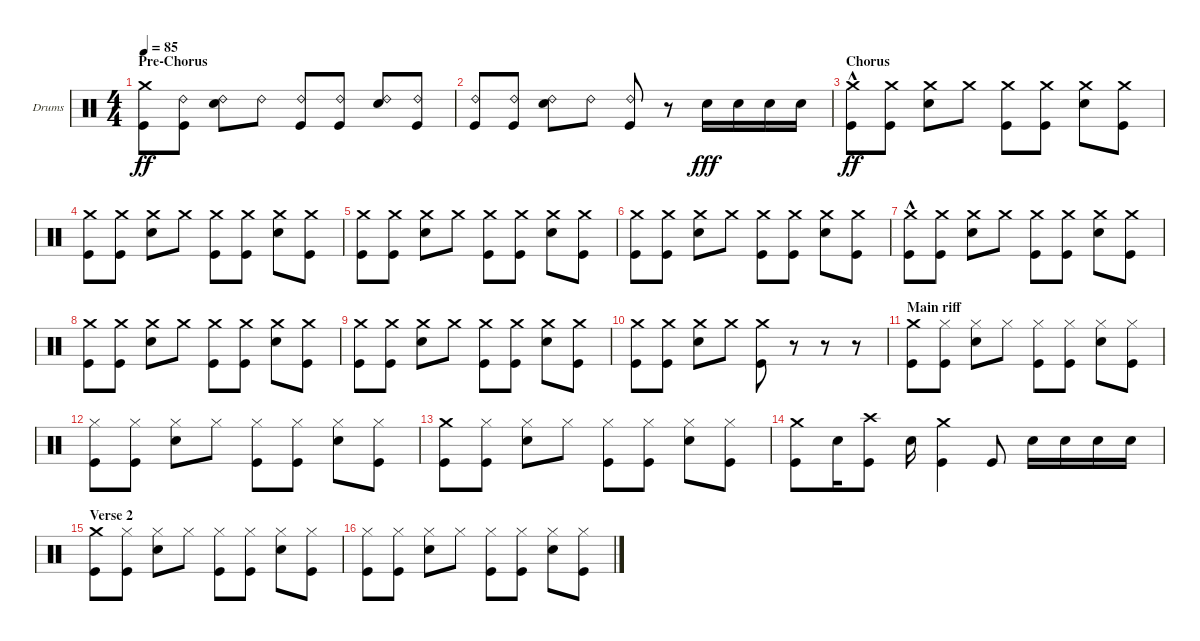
\bracketExtendMode groupsimilarinstruments
\firstSystemTrackNameOrientation horizontal
\otherSystemsTrackNameOrientation horizontal
\track ("Drumkit" "Drums") {instrument percussion}
\staff {score}
\articulation defaults
\ts (4 4)
\section ("" "Pre-Chorus")
\tempo 85
\clef neutral
\ks c
("Kick (hit)" "Crash medium (hit)").8{dy ff} ("Kick (hit)" "Ride (bell) 2").8 ("Snare (hit) 2" "Ride (bell) 2").8 "Ride (bell) 2".8 ("Kick (hit)" "Ride (bell) 2").8 ("Kick (hit)" "Ride (bell) 2").8 ("Snare (hit) 2" "Ride (bell) 2").8 ("Kick (hit)" "Ride (bell) 2").8 |
("Kick (hit)" "Ride (bell) 2").8 ("Kick (hit)" "Ride (bell) 2").8 ("Snare (hit) 2" "Ride (bell) 2").8 "Ride (bell) 2".8 ("Kick (hit)" "Ride (bell) 2").8 r.8 "Snare (hit) 2".16{dy fff} "Snare (hit) 2".16 "Snare (hit) 2".16 "Snare (hit) 2".16 |
\section ("" "Chorus")
("Kick (hit)"{hac} "Crash medium (hit)"{hac}).8{dy ff} ("Kick (hit)" "Crash medium (hit)").8 ("Snare (hit) 2" "Crash medium (hit)").8 "Crash medium (hit)".8 ("Kick (hit)" "Crash medium (hit)").8 ("Kick (hit)" "Crash medium (hit)").8 ("Snare (hit) 2" "Crash medium (hit)").8 ("Kick (hit)" "Crash medium (hit)").8 |
("Kick (hit)" "Crash medium (hit)").8 ("Kick (hit)" "Crash medium (hit)").8 ("Snare (hit) 2" "Crash medium (hit)").8 "Crash medium (hit)".8 ("Kick (hit)" "Crash medium (hit)").8 ("Kick (hit)" "Crash medium (hit)").8 ("Snare (hit) 2" "Crash medium (hit)").8 ("Kick (hit)" "Crash medium (hit)").8 |
("Kick (hit)" "Crash medium (hit)").8 ("Kick (hit)" "Crash medium (hit)").8 ("Snare (hit) 2" "Crash medium (hit)").8 "Crash medium (hit)".8 ("Kick (hit)" "Crash medium (hit)").8 ("Kick (hit)" "Crash medium (hit)").8 ("Snare (hit) 2" "Crash medium (hit)").8 ("Kick (hit)" "Crash medium (hit)").8 |
("Kick (hit)" "Crash medium (hit)").8 ("Kick (hit)" "Crash medium (hit)").8 ("Snare (hit) 2" "Crash medium (hit)").8 "Crash medium (hit)".8 ("Kick (hit)" "Crash medium (hit)").8 ("Kick (hit)" "Crash medium (hit)").8 ("Snare (hit) 2" "Crash medium (hit)").8 ("Kick (hit)" "Crash medium (hit)").8 |
("Kick (hit)"{hac} "Crash medium (hit)"{hac}).8 ("Kick (hit)" "Crash medium (hit)").8 ("Snare (hit) 2" "Crash medium (hit)").8 "Crash medium (hit)".8 ("Kick (hit)" "Crash medium (hit)").8 ("Kick (hit)" "Crash medium (hit)").8 ("Snare (hit) 2" "Crash medium (hit)").8 ("Kick (hit)" "Crash medium (hit)").8 |
("Kick (hit)" "Crash medium (hit)").8 ("Kick (hit)" "Crash medium (hit)").8 ("Snare (hit) 2" "Crash medium (hit)").8 "Crash medium (hit)".8 ("Kick (hit)" "Crash medium (hit)").8 ("Kick (hit)" "Crash medium (hit)").8 ("Snare (hit) 2" "Crash medium (hit)").8 ("Kick (hit)" "Crash medium (hit)").8 |
("Kick (hit)" "Crash medium (hit)").8 ("Kick (hit)" "Crash medium (hit)").8 ("Snare (hit) 2" "Crash medium (hit)").8 "Crash medium (hit)".8 ("Kick (hit)" "Crash medium (hit)").8 ("Kick (hit)" "Crash medium (hit)").8 ("Snare (hit) 2" "Crash medium (hit)").8 ("Kick (hit)" "Crash medium (hit)").8 |
("Kick (hit)" "Crash medium (hit)").8 ("Kick (hit)" "Crash medium (hit)").8 ("Snare (hit) 2" "Crash medium (hit)").8 "Crash medium (hit)".8 ("Kick (hit)" "Crash medium (hit)").8 r.8 r.8 r.8 |
\section ("" "Main riff")
("Kick (hit)" "Crash medium (hit)").8 ("Kick (hit)" "Hi-Hat (closed)").8 ("Snare (hit) 2" "Hi-Hat (closed)").8 "Hi-Hat (closed)".8 ("Kick (hit)" "Hi-Hat (closed)").8 ("Kick (hit)" "Hi-Hat (closed)").8 ("Snare (hit) 2" "Hi-Hat (closed)").8 ("Kick (hit)" "Hi-Hat (closed)").8 |
("Kick (hit)" "Hi-Hat (closed)").8 ("Kick (hit)" "Hi-Hat (closed)").8 ("Snare (hit) 2" "Hi-Hat (closed)").8 "Hi-Hat (closed)".8 ("Kick (hit)" "Hi-Hat (closed)").8 ("Kick (hit)" "Hi-Hat (closed)").8 ("Snare (hit) 2" "Hi-Hat (closed)").8 ("Kick (hit)" "Hi-Hat (closed)").8 |
("Kick (hit)" "Crash medium (hit)").8 ("Kick (hit)" "Hi-Hat (closed)").8 ("Snare (hit) 2" "Hi-Hat (closed)").8 "Hi-Hat (closed)".8 ("Kick (hit)" "Hi-Hat (closed)").8 ("Kick (hit)" "Hi-Hat (closed)").8 ("Snare (hit) 2" "Hi-Hat (closed)").8 ("Kick (hit)" "Hi-Hat (closed)").8 |
("Crash medium (hit)" "Kick (hit)").8 "Snare (hit) 2".16 ("Kick (hit)" "Crash high (hit)").8 "Snare (hit) 2".16 ("Kick (hit)" "Crash medium (hit)").4 "Kick (hit)".8 "Snare (hit) 2".16 "Snare (hit) 2".16 "Snare (hit) 2".16 "Snare (hit) 2".16 |
\section ("" "Verse 2")
("Kick (hit)" "Crash medium (hit)").8 ("Kick (hit)" "Hi-Hat (closed)").8 ("Snare (hit) 2" "Hi-Hat (closed)").8 "Hi-Hat (closed)".8 ("Kick (hit)" "Hi-Hat (closed)").8 ("Kick (hit)" "Hi-Hat (closed)").8 ("Snare (hit) 2" "Hi-Hat (closed)").8 ("Kick (hit)" "Hi-Hat (closed)").8 |
("Kick (hit)" "Hi-Hat (closed)").8 ("Kick (hit)" "Hi-Hat (closed)").8 ("Snare (hit) 2" "Hi-Hat (closed)").8 "Hi-Hat (closed)".8 ("Kick (hit)" "Hi-Hat (closed)").8 ("Kick (hit)" "Hi-Hat (closed)").8 ("Snare (hit) 2" "Hi-Hat (closed)").8 ("Kick (hit)" "Hi-Hat (closed)").8
